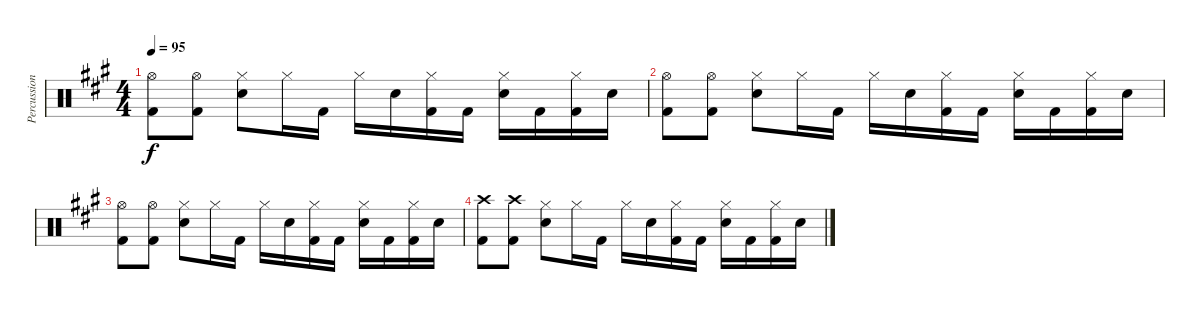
\track ("Percussion" "Percussion") {instrument percussion}
\staff {score}
\articulation defaults
\ts (4 4)
\tempo 95
\clef neutral
\ks a
("Hi-Hat (open)" "Kick (hit) 2").8{dy f} ("Hi-Hat (open)" "Kick (hit) 2").8 ("Hi-Hat (closed)" "Electric Snare (hit)").8 "Hi-Hat (closed)".16 "Kick (hit) 2".16 "Hi-Hat (closed)".16 "Electric Snare (hit)".16 ("Hi-Hat (closed)" "Kick (hit) 2").16 "Kick (hit) 2".16 ("Hi-Hat (closed)" "Electric Snare (hit)").16 "Kick (hit) 2".16 ("Hi-Hat (closed)" "Kick (hit) 2").16 "Electric Snare (hit)".16 |
("Hi-Hat (open)" "Kick (hit) 2").8 ("Hi-Hat (open)" "Kick (hit) 2").8 ("Hi-Hat (closed)" "Electric Snare (hit)").8 "Hi-Hat (closed)".16 "Kick (hit) 2".16 "Hi-Hat (closed)".16 "Electric Snare (hit)".16 ("Hi-Hat (closed)" "Kick (hit) 2").16 "Kick (hit) 2".16 ("Hi-Hat (closed)" "Electric Snare (hit)").16 "Kick (hit) 2".16 ("Hi-Hat (closed)" "Kick (hit) 2").16 "Electric Snare (hit)".16 |
("Hi-Hat (open)" "Kick (hit) 2").8 ("Hi-Hat (open)" "Kick (hit) 2").8 ("Hi-Hat (closed)" "Electric Snare (hit)").8 "Hi-Hat (closed)".16 "Kick (hit) 2".16 "Hi-Hat (closed)".16 "Electric Snare (hit)".16 ("Hi-Hat (closed)" "Kick (hit) 2").16 "Kick (hit) 2".16 ("Hi-Hat (closed)" "Electric Snare (hit)").16 "Kick (hit) 2".16 ("Hi-Hat (closed)" "Kick (hit) 2").16 "Electric Snare (hit)".16 |
("Crash high (hit)" "Kick (hit) 2").8 ("Crash high (hit)" "Kick (hit) 2").8 ("Hi-Hat (closed)" "Electric Snare (hit)").8 "Hi-Hat (closed)".16 "Kick (hit) 2".16 "Hi-Hat (closed)".16 "Electric Snare (hit)".16 ("Hi-Hat (closed)" "Kick (hit) 2").16 "Kick (hit) 2".16 ("Hi-Hat (closed)" "Electric Snare (hit)").16 "Kick (hit) 2".16 ("Hi-Hat (closed)" "Kick (hit) 2").16 "Electric Snare (hit)".16
